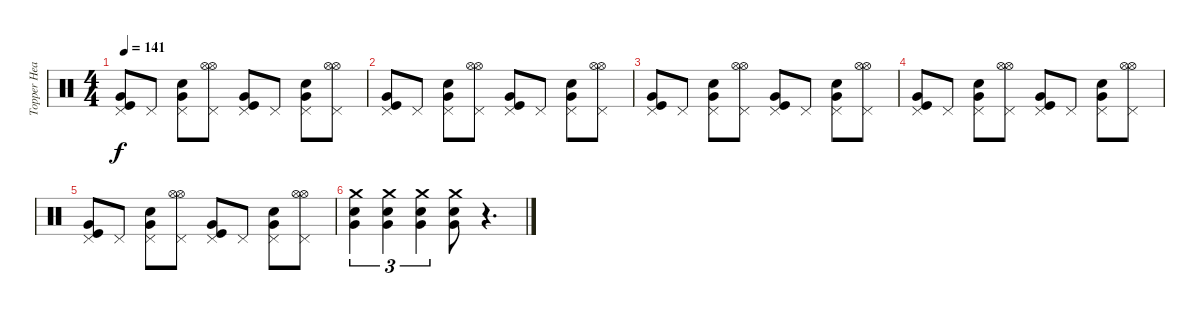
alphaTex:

\track ("Topper Headon - Drums" "Topper Hea") {instrument percussion}
\staff {score}
\articulation defaults
\ts (4 4)
\tempo 141
\clef neutral
\ks c
("Pedal Hi-Hat (hit)" "Very Low Tom (hit)" "Kick (hit)").8{dy f} "Pedal Hi-Hat (hit)".8 ("Pedal Hi-Hat (hit)" "Very Low Tom (hit)" "Snare (hit) 2").8 ("Pedal Hi-Hat (hit)" "Hi-Hat (open)" "Hi-Hat (open)").8 ("Pedal Hi-Hat (hit)" "Very Low Tom (hit)" "Kick (hit)").8 "Pedal Hi-Hat (hit)".8 ("Pedal Hi-Hat (hit)" "Very Low Tom (hit)" "Snare (hit) 2").8 ("Pedal Hi-Hat (hit)" "Hi-Hat (open)" "Hi-Hat (open)").8 |
("Pedal Hi-Hat (hit)" "Very Low Tom (hit)" "Kick (hit)").8 "Pedal Hi-Hat (hit)".8 ("Pedal Hi-Hat (hit)" "Very Low Tom (hit)" "Snare (hit) 2").8 ("Pedal Hi-Hat (hit)" "Hi-Hat (open)" "Hi-Hat (open)").8 ("Pedal Hi-Hat (hit)" "Very Low Tom (hit)" "Kick (hit)").8 "Pedal Hi-Hat (hit)".8 ("Pedal Hi-Hat (hit)" "Very Low Tom (hit)" "Snare (hit) 2").8 ("Pedal Hi-Hat (hit)" "Hi-Hat (open)" "Hi-Hat (open)").8 |
("Pedal Hi-Hat (hit)" "Very Low Tom (hit)" "Kick (hit)").8 "Pedal Hi-Hat (hit)".8 ("Pedal Hi-Hat (hit)" "Very Low Tom (hit)" "Snare (hit) 2").8 ("Pedal Hi-Hat (hit)" "Hi-Hat (open)" "Hi-Hat (open)").8 ("Pedal Hi-Hat (hit)" "Very Low Tom (hit)" "Kick (hit)").8 "Pedal Hi-Hat (hit)".8 ("Pedal Hi-Hat (hit)" "Very Low Tom (hit)" "Snare (hit) 2").8 ("Pedal Hi-Hat (hit)" "Hi-Hat (open)" "Hi-Hat (open)").8 |
("Pedal Hi-Hat (hit)" "Very Low Tom (hit)" "Kick (hit)").8 "Pedal Hi-Hat (hit)".8 ("Pedal Hi-Hat (hit)" "Very Low Tom (hit)" "Snare (hit) 2").8 ("Pedal Hi-Hat (hit)" "Hi-Hat (open)" "Hi-Hat (open)").8 ("Pedal Hi-Hat (hit)" "Very Low Tom (hit)" "Kick (hit)").8 "Pedal Hi-Hat (hit)".8 ("Pedal Hi-Hat (hit)" "Very Low Tom (hit)" "Snare (hit) 2").8 ("Pedal Hi-Hat (hit)" "Hi-Hat (open)" "Hi-Hat (open)").8 |
("Pedal Hi-Hat (hit)" "Very Low Tom (hit)" "Kick (hit)").8 "Pedal Hi-Hat (hit)".8 ("Pedal Hi-Hat (hit)" "Very Low Tom (hit)" "Snare (hit) 2").8 ("Pedal Hi-Hat (hit)" "Hi-Hat (open)" "Hi-Hat (open)").8 ("Pedal Hi-Hat (hit)" "Very Low Tom (hit)" "Kick (hit)").8 "Pedal Hi-Hat (hit)".8 ("Pedal Hi-Hat (hit)" "Very Low Tom (hit)" "Snare (hit) 2").8 ("Pedal Hi-Hat (hit)" "Hi-Hat (open)" "Hi-Hat (open)").8 |
("Crash medium (hit)" "Snare (hit) 2" "Very Low Tom (hit)").4{tu (3 2)} ("Crash medium (hit)" "Snare (hit) 2" "Very Low Tom (hit)").4{tu (3 2)} ("Crash medium (hit)" "Snare (hit) 2" "Very Low Tom (hit)").4{tu (3 2)} ("Crash medium (hit)" "Snare (hit) 2" "Very Low Tom (hit)").8 r.4{d}
